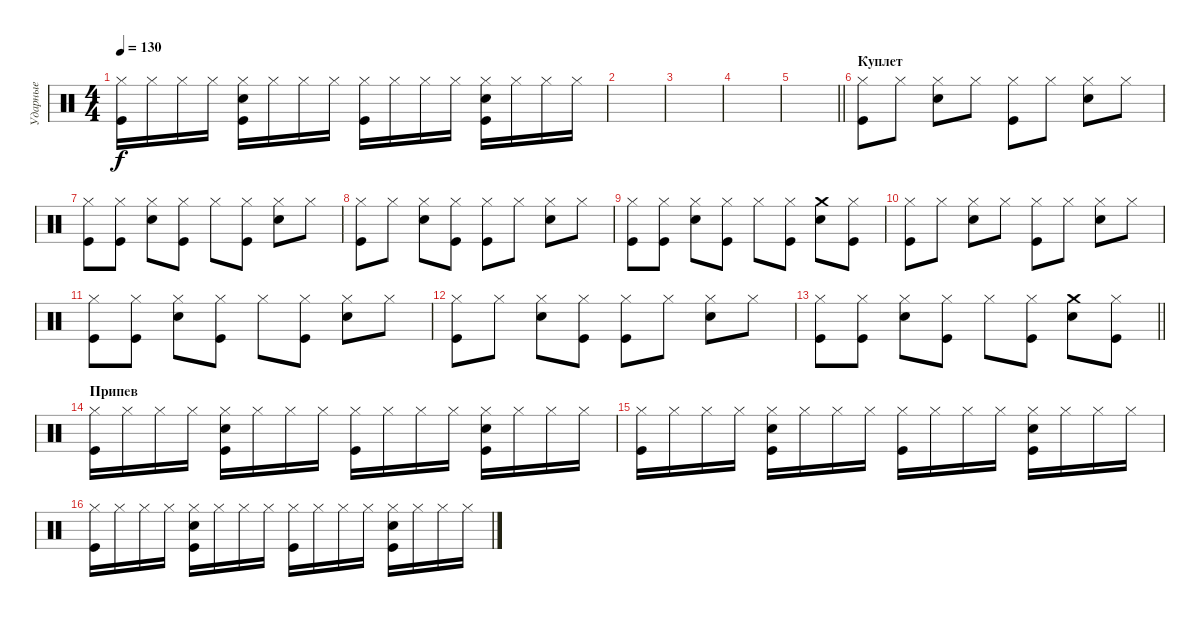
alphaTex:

\track ("Ударные" "Ударные") {instrument percussion}
\staff {score}
\articulation defaults
\ts (4 4)
\tempo 130
\clef neutral
\ks c
("Hi-Hat (closed)" "Kick (hit)").16{dy f} "Hi-Hat (closed)".16 "Hi-Hat (closed)".16 "Hi-Hat (closed)".16 ("Hi-Hat (closed)" "Kick (hit)" "Snare (hit) 2").16 "Hi-Hat (closed)".16 "Hi-Hat (closed)".16 "Hi-Hat (closed)".16 ("Hi-Hat (closed)" "Kick (hit)").16 "Hi-Hat (closed)".16 "Hi-Hat (closed)".16 "Hi-Hat (closed)".16 ("Hi-Hat (closed)" "Kick (hit)" "Snare (hit) 2").16 "Hi-Hat (closed)".16 "Hi-Hat (closed)".16 "Hi-Hat (closed)".16 |
|
|
|
\barLineRight lightlight
|
\section ("" "Куплет")
("Hi-Hat (closed)" "Kick (hit)").8 "Hi-Hat (closed)".8 ("Hi-Hat (closed)" "Electric Snare (hit)").8 "Hi-Hat (closed)".8 ("Hi-Hat (closed)" "Kick (hit)").8 "Hi-Hat (closed)".8 ("Hi-Hat (closed)" "Electric Snare (hit)").8 "Hi-Hat (closed)".8 |
("Hi-Hat (closed)" "Kick (hit)").8 ("Hi-Hat (closed)" "Kick (hit)").8 ("Hi-Hat (closed)" "Electric Snare (hit)").8 ("Hi-Hat (closed)" "Kick (hit)").8 "Hi-Hat (closed)".8 ("Hi-Hat (closed)" "Kick (hit)").8 ("Hi-Hat (closed)" "Electric Snare (hit)").8 "Hi-Hat (closed)".8 |
("Hi-Hat (closed)" "Kick (hit)").8 "Hi-Hat (closed)".8 ("Hi-Hat (closed)" "Electric Snare (hit)").8 ("Hi-Hat (closed)" "Kick (hit)").8 ("Hi-Hat (closed)" "Kick (hit)").8 "Hi-Hat (closed)".8 ("Hi-Hat (closed)" "Electric Snare (hit)").8 "Hi-Hat (closed)".8 |
("Hi-Hat (closed)" "Kick (hit)").8 ("Hi-Hat (closed)" "Kick (hit)").8 ("Hi-Hat (closed)" "Electric Snare (hit)").8 ("Hi-Hat (closed)" "Kick (hit)").8 "Hi-Hat (closed)".8 ("Hi-Hat (closed)" "Kick (hit)").8 ("Crash medium (hit)" "Electric Snare (hit)").8 ("Hi-Hat (closed)" "Kick (hit)").8 |
("Hi-Hat (closed)" "Kick (hit)").8 "Hi-Hat (closed)".8 ("Hi-Hat (closed)" "Electric Snare (hit)").8 "Hi-Hat (closed)".8 ("Hi-Hat (closed)" "Kick (hit)").8 "Hi-Hat (closed)".8 ("Hi-Hat (closed)" "Electric Snare (hit)").8 "Hi-Hat (closed)".8 |
("Hi-Hat (closed)" "Kick (hit)").8 ("Hi-Hat (closed)" "Kick (hit)").8 ("Hi-Hat (closed)" "Electric Snare (hit)").8 ("Hi-Hat (closed)" "Kick (hit)").8 "Hi-Hat (closed)".8 ("Hi-Hat (closed)" "Kick (hit)").8 ("Hi-Hat (closed)" "Electric Snare (hit)").8 "Hi-Hat (closed)".8 |
("Hi-Hat (closed)" "Kick (hit)").8 "Hi-Hat (closed)".8 ("Hi-Hat (closed)" "Electric Snare (hit)").8 ("Hi-Hat (closed)" "Kick (hit)").8 ("Hi-Hat (closed)" "Kick (hit)").8 "Hi-Hat (closed)".8 ("Hi-Hat (closed)" "Electric Snare (hit)").8 "Hi-Hat (closed)".8 |
\barLineRight lightlight
("Hi-Hat (closed)" "Kick (hit)").8 ("Hi-Hat (closed)" "Kick (hit)").8 ("Hi-Hat (closed)" "Electric Snare (hit)").8 ("Hi-Hat (closed)" "Kick (hit)").8 "Hi-Hat (closed)".8 ("Hi-Hat (closed)" "Kick (hit)").8 ("Crash medium (hit)" "Electric Snare (hit)").8 ("Hi-Hat (closed)" "Kick (hit)").8 |
\section ("" "Припев")
("Hi-Hat (closed)" "Kick (hit)").16 "Hi-Hat (closed)".16 "Hi-Hat (closed)".16 "Hi-Hat (closed)".16 ("Hi-Hat (closed)" "Kick (hit)" "Snare (hit) 2").16 "Hi-Hat (closed)".16 "Hi-Hat (closed)".16 "Hi-Hat (closed)".16 ("Hi-Hat (closed)" "Kick (hit)").16 "Hi-Hat (closed)".16 "Hi-Hat (closed)".16 "Hi-Hat (closed)".16 ("Hi-Hat (closed)" "Kick (hit)" "Snare (hit) 2").16 "Hi-Hat (closed)".16 "Hi-Hat (closed)".16 "Hi-Hat (closed)".16 |
("Hi-Hat (closed)" "Kick (hit)").16 "Hi-Hat (closed)".16 "Hi-Hat (closed)".16 "Hi-Hat (closed)".16 ("Hi-Hat (closed)" "Kick (hit)" "Snare (hit) 2").16 "Hi-Hat (closed)".16 "Hi-Hat (closed)".16 "Hi-Hat (closed)".16 ("Hi-Hat (closed)" "Kick (hit)").16 "Hi-Hat (closed)".16 "Hi-Hat (closed)".16 "Hi-Hat (closed)".16 ("Hi-Hat (closed)" "Kick (hit)" "Snare (hit) 2").16 "Hi-Hat (closed)".16 "Hi-Hat (closed)".16 "Hi-Hat (closed)".16 |
("Hi-Hat (closed)" "Kick (hit)").16 "Hi-Hat (closed)".16 "Hi-Hat (closed)".16 "Hi-Hat (closed)".16 ("Hi-Hat (closed)" "Kick (hit)" "Snare (hit) 2").16 "Hi-Hat (closed)".16 "Hi-Hat (closed)".16 "Hi-Hat (closed)".16 ("Hi-Hat (closed)" "Kick (hit)").16 "Hi-Hat (closed)".16 "Hi-Hat (closed)".16 "Hi-Hat (closed)".16 ("Hi-Hat (closed)" "Kick (hit)" "Snare (hit) 2").16 "Hi-Hat (closed)".16 "Hi-Hat (closed)".16 "Hi-Hat (closed)".16
